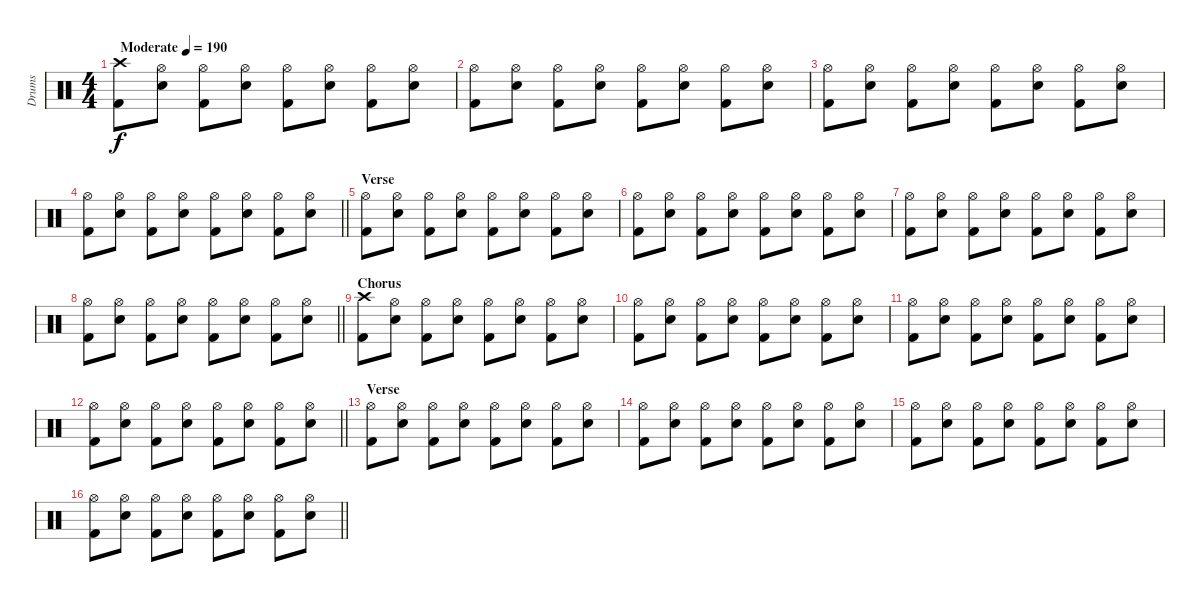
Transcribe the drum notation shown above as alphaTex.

\track ("Drums" "Drums") {instrument percussion}
\staff {score}
\articulation defaults
\ts (4 4)
\tempo (190 "Moderate")
\clef neutral
\ks c
("Crash high (hit)" "Kick (hit) 2").8{dy f} ("Hi-Hat (open)" "Electric Snare (hit)").8 ("Hi-Hat (open)" "Kick (hit) 2").8 ("Hi-Hat (open)" "Electric Snare (hit)").8 ("Hi-Hat (open)" "Kick (hit) 2").8 ("Hi-Hat (open)" "Electric Snare (hit)").8 ("Hi-Hat (open)" "Kick (hit) 2").8 ("Hi-Hat (open)" "Electric Snare (hit)").8 |
("Hi-Hat (open)" "Kick (hit) 2").8 ("Hi-Hat (open)" "Electric Snare (hit)").8 ("Hi-Hat (open)" "Kick (hit) 2").8 ("Hi-Hat (open)" "Electric Snare (hit)").8 ("Hi-Hat (open)" "Kick (hit) 2").8 ("Hi-Hat (open)" "Electric Snare (hit)").8 ("Hi-Hat (open)" "Kick (hit) 2").8 ("Hi-Hat (open)" "Electric Snare (hit)").8 |
("Hi-Hat (open)" "Kick (hit) 2").8 ("Hi-Hat (open)" "Electric Snare (hit)").8 ("Hi-Hat (open)" "Kick (hit) 2").8 ("Hi-Hat (open)" "Electric Snare (hit)").8 ("Hi-Hat (open)" "Kick (hit) 2").8 ("Hi-Hat (open)" "Electric Snare (hit)").8 ("Hi-Hat (open)" "Kick (hit) 2").8 ("Hi-Hat (open)" "Electric Snare (hit)").8 |
\barLineRight lightlight
("Hi-Hat (open)" "Kick (hit) 2").8 ("Hi-Hat (open)" "Electric Snare (hit)").8 ("Hi-Hat (open)" "Kick (hit) 2").8 ("Hi-Hat (open)" "Electric Snare (hit)").8 ("Hi-Hat (open)" "Kick (hit) 2").8 ("Hi-Hat (open)" "Electric Snare (hit)").8 ("Hi-Hat (open)" "Kick (hit) 2").8 ("Hi-Hat (open)" "Electric Snare (hit)").8 |
\section ("" "Verse")
("Hi-Hat (open)" "Kick (hit) 2").8 ("Hi-Hat (open)" "Electric Snare (hit)").8 ("Hi-Hat (open)" "Kick (hit) 2").8 ("Hi-Hat (open)" "Electric Snare (hit)").8 ("Hi-Hat (open)" "Kick (hit) 2").8 ("Hi-Hat (open)" "Electric Snare (hit)").8 ("Hi-Hat (open)" "Kick (hit) 2").8 ("Hi-Hat (open)" "Electric Snare (hit)").8 |
("Hi-Hat (open)" "Kick (hit) 2").8 ("Hi-Hat (open)" "Electric Snare (hit)").8 ("Hi-Hat (open)" "Kick (hit) 2").8 ("Hi-Hat (open)" "Electric Snare (hit)").8 ("Hi-Hat (open)" "Kick (hit) 2").8 ("Hi-Hat (open)" "Electric Snare (hit)").8 ("Hi-Hat (open)" "Kick (hit) 2").8 ("Hi-Hat (open)" "Electric Snare (hit)").8 |
("Hi-Hat (open)" "Kick (hit) 2").8 ("Hi-Hat (open)" "Electric Snare (hit)").8 ("Hi-Hat (open)" "Kick (hit) 2").8 ("Hi-Hat (open)" "Electric Snare (hit)").8 ("Hi-Hat (open)" "Kick (hit) 2").8 ("Hi-Hat (open)" "Electric Snare (hit)").8 ("Hi-Hat (open)" "Kick (hit) 2").8 ("Hi-Hat (open)" "Electric Snare (hit)").8 |
\barLineRight lightlight
("Hi-Hat (open)" "Kick (hit) 2").8 ("Hi-Hat (open)" "Electric Snare (hit)").8 ("Hi-Hat (open)" "Kick (hit) 2").8 ("Hi-Hat (open)" "Electric Snare (hit)").8 ("Hi-Hat (open)" "Kick (hit) 2").8 ("Hi-Hat (open)" "Electric Snare (hit)").8 ("Hi-Hat (open)" "Kick (hit) 2").8 ("Hi-Hat (open)" "Electric Snare (hit)").8 |
\section ("" "Chorus")
("Crash high (hit)" "Kick (hit) 2").8 ("Hi-Hat (open)" "Electric Snare (hit)").8 ("Hi-Hat (open)" "Kick (hit) 2").8 ("Hi-Hat (open)" "Electric Snare (hit)").8 ("Hi-Hat (open)" "Kick (hit) 2").8 ("Hi-Hat (open)" "Electric Snare (hit)").8 ("Hi-Hat (open)" "Kick (hit) 2").8 ("Hi-Hat (open)" "Electric Snare (hit)").8 |
("Hi-Hat (open)" "Kick (hit) 2").8 ("Hi-Hat (open)" "Electric Snare (hit)").8 ("Hi-Hat (open)" "Kick (hit) 2").8 ("Hi-Hat (open)" "Electric Snare (hit)").8 ("Hi-Hat (open)" "Kick (hit) 2").8 ("Hi-Hat (open)" "Electric Snare (hit)").8 ("Hi-Hat (open)" "Kick (hit) 2").8 ("Hi-Hat (open)" "Electric Snare (hit)").8 |
("Hi-Hat (open)" "Kick (hit) 2").8 ("Hi-Hat (open)" "Electric Snare (hit)").8 ("Hi-Hat (open)" "Kick (hit) 2").8 ("Hi-Hat (open)" "Electric Snare (hit)").8 ("Hi-Hat (open)" "Kick (hit) 2").8 ("Hi-Hat (open)" "Electric Snare (hit)").8 ("Hi-Hat (open)" "Kick (hit) 2").8 ("Hi-Hat (open)" "Electric Snare (hit)").8 |
\barLineRight lightlight
("Hi-Hat (open)" "Kick (hit) 2").8 ("Hi-Hat (open)" "Electric Snare (hit)").8 ("Hi-Hat (open)" "Kick (hit) 2").8 ("Hi-Hat (open)" "Electric Snare (hit)").8 ("Hi-Hat (open)" "Kick (hit) 2").8 ("Hi-Hat (open)" "Electric Snare (hit)").8 ("Hi-Hat (open)" "Kick (hit) 2").8 ("Hi-Hat (open)" "Electric Snare (hit)").8 |
\section ("" "Verse")
("Hi-Hat (open)" "Kick (hit) 2").8 ("Hi-Hat (open)" "Electric Snare (hit)").8 ("Hi-Hat (open)" "Kick (hit) 2").8 ("Hi-Hat (open)" "Electric Snare (hit)").8 ("Hi-Hat (open)" "Kick (hit) 2").8 ("Hi-Hat (open)" "Electric Snare (hit)").8 ("Hi-Hat (open)" "Kick (hit) 2").8 ("Hi-Hat (open)" "Electric Snare (hit)").8 |
("Hi-Hat (open)" "Kick (hit) 2").8 ("Hi-Hat (open)" "Electric Snare (hit)").8 ("Hi-Hat (open)" "Kick (hit) 2").8 ("Hi-Hat (open)" "Electric Snare (hit)").8 ("Hi-Hat (open)" "Kick (hit) 2").8 ("Hi-Hat (open)" "Electric Snare (hit)").8 ("Hi-Hat (open)" "Kick (hit) 2").8 ("Hi-Hat (open)" "Electric Snare (hit)").8 |
("Hi-Hat (open)" "Kick (hit) 2").8 ("Hi-Hat (open)" "Electric Snare (hit)").8 ("Hi-Hat (open)" "Kick (hit) 2").8 ("Hi-Hat (open)" "Electric Snare (hit)").8 ("Hi-Hat (open)" "Kick (hit) 2").8 ("Hi-Hat (open)" "Electric Snare (hit)").8 ("Hi-Hat (open)" "Kick (hit) 2").8 ("Hi-Hat (open)" "Electric Snare (hit)").8 |
\barLineRight lightlight
("Hi-Hat (open)" "Kick (hit) 2").8 ("Hi-Hat (open)" "Electric Snare (hit)").8 ("Hi-Hat (open)" "Kick (hit) 2").8 ("Hi-Hat (open)" "Electric Snare (hit)").8 ("Hi-Hat (open)" "Kick (hit) 2").8 ("Hi-Hat (open)" "Electric Snare (hit)").8 ("Hi-Hat (open)" "Kick (hit) 2").8 ("Hi-Hat (open)" "Electric Snare (hit)").8
